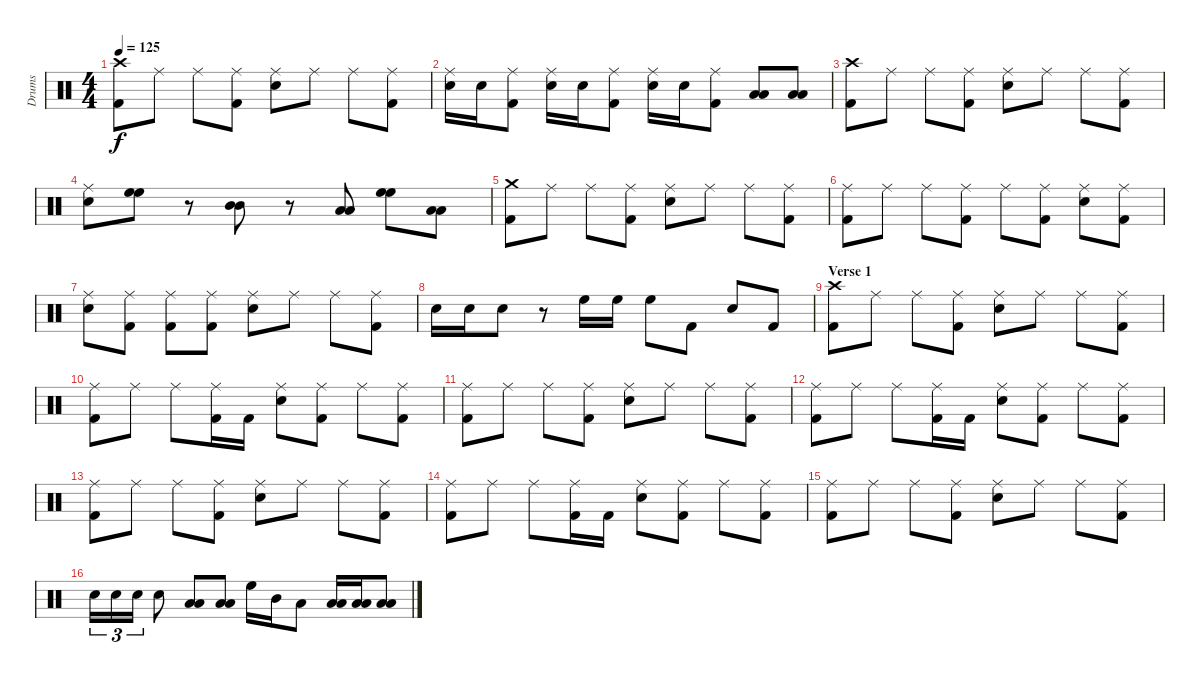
\track ("Drums" "Drums") {instrument percussion}
\staff {score}
\articulation defaults
\ts (4 4)
\tempo 125
\clef neutral
\ks c
("Crash high (hit)" "Kick (hit) 2").8{dy f} "Ride (middle)".8 "Ride (middle)".8 ("Ride (middle)" "Kick (hit) 2").8 ("Ride (middle)" "Snare (hit) 2").8 "Ride (middle)".8 "Ride (middle)".8 ("Ride (middle)" "Kick (hit) 2").8 |
("Ride (middle)" "Snare (hit) 2").16 "Snare (hit) 2".16 ("Ride (middle)" "Kick (hit) 2").8 ("Ride (middle)" "Snare (hit) 2").16 "Snare (hit) 2".16 ("Ride (middle)" "Kick (hit) 2").8 ("Ride (middle)" "Snare (hit) 2").16 "Snare (hit) 2".16 ("Ride (middle)" "Kick (hit) 2").8 ("Low Floor Tom (hit)" "Low Floor Tom (hit)").8 ("Low Floor Tom (hit)" "Low Floor Tom (hit)").8 |
("Crash high (hit)" "Kick (hit) 2").8 "Ride (middle)".8 "Ride (middle)".8 ("Ride (middle)" "Kick (hit) 2").8 ("Ride (middle)" "Snare (hit) 2").8 "Ride (middle)".8 "Ride (middle)".8 ("Ride (middle)" "Kick (hit) 2").8 |
("Ride (middle)" "Snare (hit) 2").8 ("High Floor Tom (hit)" "High Floor Tom (hit)").8 r.8 ("Mid Tom (hit)" "Mid Tom (hit)").8 r.8 ("Low Tom (hit)" "Low Tom (hit)").8 ("High Floor Tom (hit)" "High Floor Tom (hit)").8 ("Low Floor Tom (hit)" "Low Floor Tom (hit)").8 |
("Crash medium (hit)" "Kick (hit) 2").8 "Ride (middle)".8 "Ride (middle)".8 ("Ride (middle)" "Kick (hit) 2").8 ("Ride (middle)" "Snare (hit) 2").8 "Ride (middle)".8 "Ride (middle)".8 ("Ride (middle)" "Kick (hit) 2").8 |
("Ride (middle)" "Kick (hit) 2").8 "Ride (middle)".8 "Ride (middle)".8 ("Ride (middle)" "Kick (hit) 2").8 "Ride (middle)".8 ("Ride (middle)" "Kick (hit) 2").8 ("Ride (middle)" "Snare (hit) 2").8 ("Ride (middle)" "Kick (hit) 2").8 |
("Ride (middle)" "Snare (hit) 2").8 ("Ride (middle)" "Kick (hit) 2").8 ("Ride (middle)" "Kick (hit) 2").8 ("Ride (middle)" "Kick (hit) 2").8 ("Ride (middle)" "Snare (hit) 2").8 "Ride (middle)".8 "Ride (middle)".8 ("Ride (middle)" "Kick (hit) 2").8 |
"Snare (hit) 2".16 "Snare (hit) 2".16 "Snare (hit) 2".8 r.8 "High Floor Tom (hit)".16 "High Floor Tom (hit)".16 "High Floor Tom (hit)".8 "Kick (hit) 2".8 "Snare (hit) 2".8 "Kick (hit) 2".8 |
\section ("" "Verse 1")
("Crash high (hit)" "Kick (hit) 2").8 "Ride (middle)".8 "Ride (middle)".8 ("Ride (middle)" "Kick (hit) 2").8 ("Ride (middle)" "Snare (hit) 2").8 "Ride (middle)".8 "Ride (middle)".8 ("Ride (middle)" "Kick (hit) 2").8 |
("Ride (middle)" "Kick (hit) 2").8 "Ride (middle)".8 "Ride (middle)".8 ("Ride (middle)" "Kick (hit) 2").16 "Kick (hit) 2".16 ("Ride (middle)" "Snare (hit) 2").8 ("Ride (middle)" "Kick (hit) 2").8 "Ride (middle)".8 ("Ride (middle)" "Kick (hit) 2").8 |
("Ride (middle)" "Kick (hit) 2").8 "Ride (middle)".8 "Ride (middle)".8 ("Ride (middle)" "Kick (hit) 2").8 ("Ride (middle)" "Snare (hit) 2").8 "Ride (middle)".8 "Ride (middle)".8 ("Ride (middle)" "Kick (hit) 2").8 |
("Ride (middle)" "Kick (hit) 2").8 "Ride (middle)".8 "Ride (middle)".8 ("Ride (middle)" "Kick (hit) 2").16 "Kick (hit) 2".16 ("Ride (middle)" "Snare (hit) 2").8 ("Ride (middle)" "Kick (hit) 2").8 "Ride (middle)".8 ("Ride (middle)" "Kick (hit) 2").8 |
("Ride (middle)" "Kick (hit) 2").8 "Ride (middle)".8 "Ride (middle)".8 ("Ride (middle)" "Kick (hit) 2").8 ("Ride (middle)" "Snare (hit) 2").8 "Ride (middle)".8 "Ride (middle)".8 ("Ride (middle)" "Kick (hit) 2").8 |
("Ride (middle)" "Kick (hit) 2").8 "Ride (middle)".8 "Ride (middle)".8 ("Ride (middle)" "Kick (hit) 2").16 "Kick (hit) 2".16 ("Ride (middle)" "Snare (hit) 2").8 ("Ride (middle)" "Kick (hit) 2").8 "Ride (middle)".8 ("Ride (middle)" "Kick (hit) 2").8 |
("Ride (middle)" "Kick (hit) 2").8 "Ride (middle)".8 "Ride (middle)".8 ("Ride (middle)" "Kick (hit) 2").8 ("Ride (middle)" "Snare (hit) 2").8 "Ride (middle)".8 "Ride (middle)".8 ("Ride (middle)" "Kick (hit) 2").8 |
"Snare (hit) 2".16{tu (3 2)} "Snare (hit) 2".16{tu (3 2)} "Snare (hit) 2".16{tu (3 2)} "Snare (hit) 2".8 ("Low Tom (hit)" "Low Tom (hit)").8 ("Low Tom (hit)" "Low Tom (hit)").8 "High Floor Tom (hit)".16 "Mid Tom (hit)".16 "Low Tom (hit)".8 ("Low Floor Tom (hit)" "Low Floor Tom (hit)").16 ("Low Floor Tom (hit)" "Low Floor Tom (hit)").16 ("Low Floor Tom (hit)" "Low Floor Tom (hit)").8
